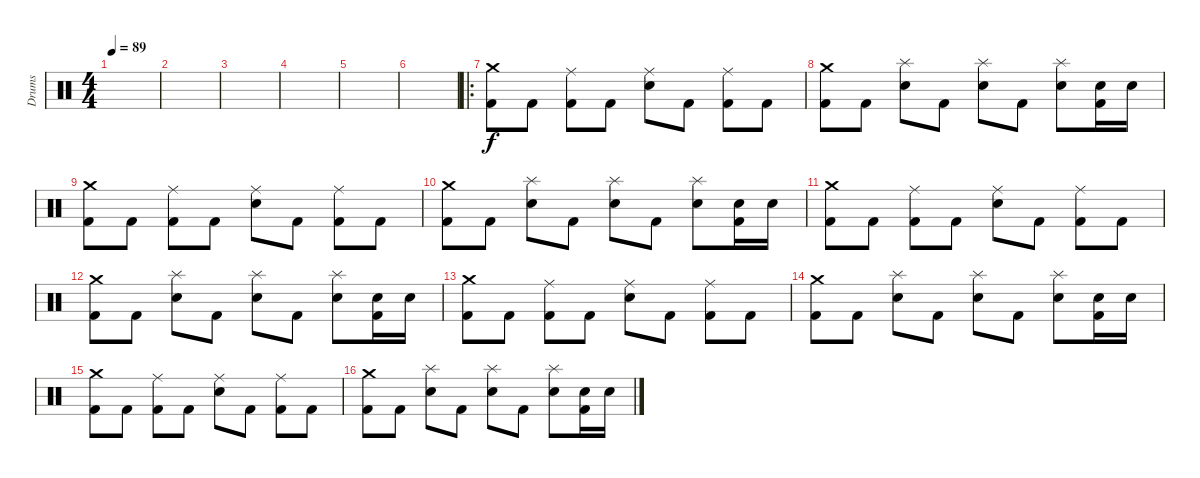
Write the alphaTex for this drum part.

\track ("Drums" "Drums") {instrument percussion}
\staff {score}
\articulation defaults
\ts (4 4)
\tempo 89
\clef neutral
\ks c
|
|
|
|
|
|
\ro
("Crash medium (hit)" "Kick (hit) 2").8 "Kick (hit) 2".8 ("Ride (middle)" "Kick (hit) 2").8 "Kick (hit) 2".8 ("Ride (middle)" "Snare (hit) 2").8 "Kick (hit) 2".8 ("Ride (middle)" "Kick (hit) 2").8 "Kick (hit) 2".8 |
("Crash medium (hit)" "Kick (hit) 2").8 "Kick (hit) 2".8 ("Splash (hit)" "Snare (hit) 2").8 "Kick (hit) 2".8 ("Splash (hit)" "Snare (hit) 2").8 "Kick (hit) 2".8 ("Splash (hit)" "Snare (hit) 2").8 ("Snare (hit) 2" "Kick (hit) 2").16 "Snare (hit) 2".16 |
("Crash medium (hit)" "Kick (hit) 2").8 "Kick (hit) 2".8 ("Ride (middle)" "Kick (hit) 2").8 "Kick (hit) 2".8 ("Ride (middle)" "Snare (hit) 2").8 "Kick (hit) 2".8 ("Ride (middle)" "Kick (hit) 2").8 "Kick (hit) 2".8 |
("Crash medium (hit)" "Kick (hit) 2").8 "Kick (hit) 2".8 ("Splash (hit)" "Snare (hit) 2").8 "Kick (hit) 2".8 ("Splash (hit)" "Snare (hit) 2").8 "Kick (hit) 2".8 ("Splash (hit)" "Snare (hit) 2").8 ("Snare (hit) 2" "Kick (hit) 2").16 "Snare (hit) 2".16 |
("Crash medium (hit)" "Kick (hit) 2").8 "Kick (hit) 2".8 ("Ride (middle)" "Kick (hit) 2").8 "Kick (hit) 2".8 ("Ride (middle)" "Snare (hit) 2").8 "Kick (hit) 2".8 ("Ride (middle)" "Kick (hit) 2").8 "Kick (hit) 2".8 |
("Crash medium (hit)" "Kick (hit) 2").8 "Kick (hit) 2".8 ("Splash (hit)" "Snare (hit) 2").8 "Kick (hit) 2".8 ("Splash (hit)" "Snare (hit) 2").8 "Kick (hit) 2".8 ("Splash (hit)" "Snare (hit) 2").8 ("Snare (hit) 2" "Kick (hit) 2").16 "Snare (hit) 2".16 |
("Crash medium (hit)" "Kick (hit) 2").8 "Kick (hit) 2".8 ("Ride (middle)" "Kick (hit) 2").8 "Kick (hit) 2".8 ("Ride (middle)" "Snare (hit) 2").8 "Kick (hit) 2".8 ("Ride (middle)" "Kick (hit) 2").8 "Kick (hit) 2".8 |
("Crash medium (hit)" "Kick (hit) 2").8 "Kick (hit) 2".8 ("Splash (hit)" "Snare (hit) 2").8 "Kick (hit) 2".8 ("Splash (hit)" "Snare (hit) 2").8 "Kick (hit) 2".8 ("Splash (hit)" "Snare (hit) 2").8 ("Snare (hit) 2" "Kick (hit) 2").16 "Snare (hit) 2".16 |
("Crash medium (hit)" "Kick (hit) 2").8 "Kick (hit) 2".8 ("Ride (middle)" "Kick (hit) 2").8 "Kick (hit) 2".8 ("Ride (middle)" "Snare (hit) 2").8 "Kick (hit) 2".8 ("Ride (middle)" "Kick (hit) 2").8 "Kick (hit) 2".8 |
("Crash medium (hit)" "Kick (hit) 2").8 "Kick (hit) 2".8 ("Splash (hit)" "Snare (hit) 2").8 "Kick (hit) 2".8 ("Splash (hit)" "Snare (hit) 2").8 "Kick (hit) 2".8 ("Splash (hit)" "Snare (hit) 2").8 ("Snare (hit) 2" "Kick (hit) 2").16 "Snare (hit) 2".16
